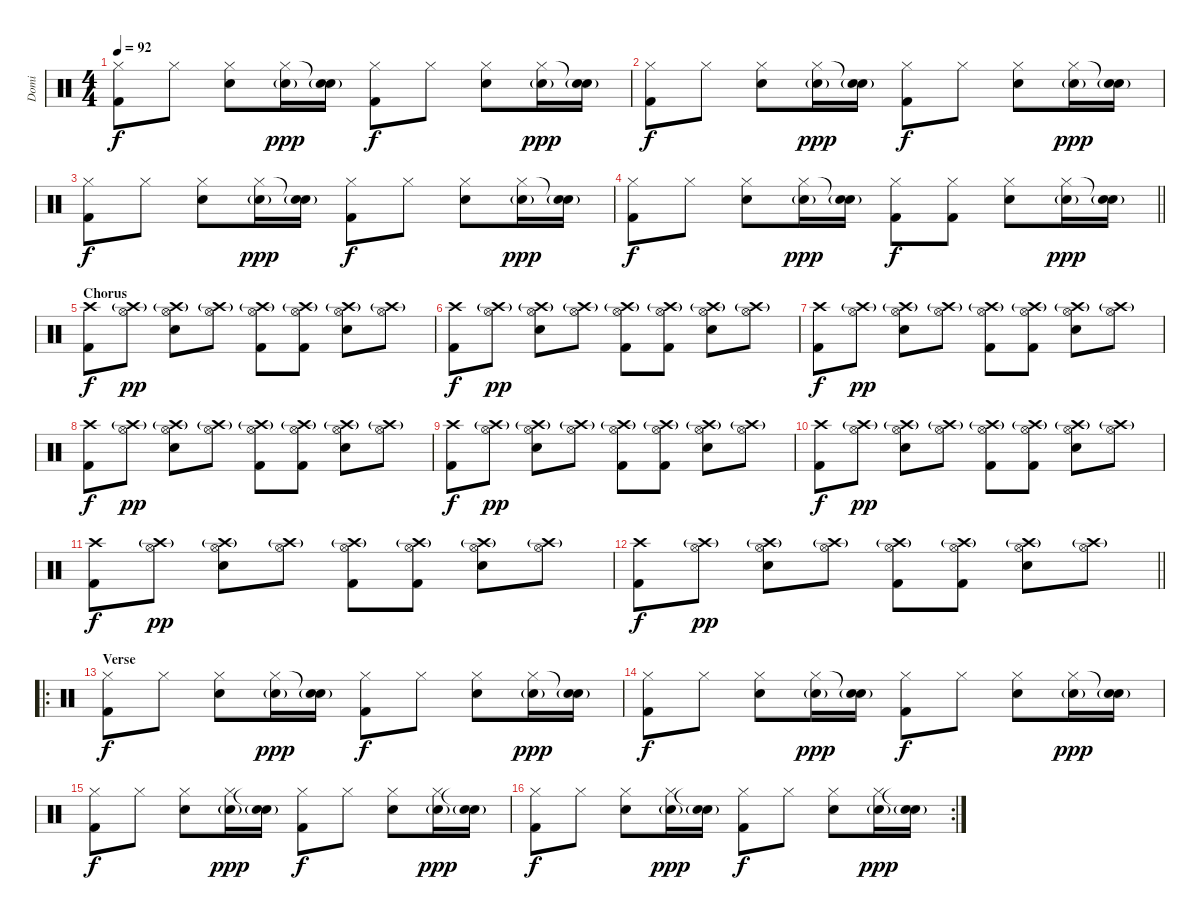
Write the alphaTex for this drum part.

\track ("Domi" "Domi") {instrument percussion}
\staff {score}
\articulation defaults
\ts (4 4)
\tempo 92
\clef neutral
\ks c
("Hi-Hat (closed)" "Kick (hit) 2").8{dy f} "Hi-Hat (closed)".8 ("Hi-Hat (closed)" "Electric Snare (hit)").8 ("Hi-Hat (closed)" "Electric Snare (hit)"{g}).16{dy ppp} ("Snare (hit)"{t} "Electric Snare (hit)"{g}).16 ("Hi-Hat (closed)" "Kick (hit) 2").8{dy f} "Hi-Hat (closed)".8 ("Hi-Hat (closed)" "Electric Snare (hit)").8 ("Hi-Hat (closed)" "Electric Snare (hit)"{g}).16{dy ppp} ("Snare (hit)"{t} "Electric Snare (hit)"{g}).16 |
("Hi-Hat (closed)" "Kick (hit) 2").8{dy f} "Hi-Hat (closed)".8 ("Hi-Hat (closed)" "Electric Snare (hit)").8 ("Hi-Hat (closed)" "Electric Snare (hit)"{g}).16{dy ppp} ("Snare (hit)"{t} "Electric Snare (hit)"{g}).16 ("Hi-Hat (closed)" "Kick (hit) 2").8{dy f} "Hi-Hat (closed)".8 ("Hi-Hat (closed)" "Electric Snare (hit)").8 ("Hi-Hat (closed)" "Electric Snare (hit)"{g}).16{dy ppp} ("Snare (hit)"{t} "Electric Snare (hit)"{g}).16 |
("Hi-Hat (closed)" "Kick (hit) 2").8{dy f} "Hi-Hat (closed)".8 ("Hi-Hat (closed)" "Electric Snare (hit)").8 ("Hi-Hat (closed)" "Electric Snare (hit)"{g}).16{dy ppp} ("Snare (hit)"{t} "Electric Snare (hit)"{g}).16 ("Hi-Hat (closed)" "Kick (hit) 2").8{dy f} "Hi-Hat (closed)".8 ("Hi-Hat (closed)" "Electric Snare (hit)").8 ("Hi-Hat (closed)" "Electric Snare (hit)"{g}).16{dy ppp} ("Snare (hit)"{t} "Electric Snare (hit)"{g}).16 |
\barLineRight lightlight
("Hi-Hat (closed)" "Kick (hit) 2").8{dy f} "Hi-Hat (closed)".8 ("Hi-Hat (closed)" "Electric Snare (hit)").8 ("Hi-Hat (closed)" "Electric Snare (hit)"{g}).16{dy ppp} ("Snare (hit)"{t} "Electric Snare (hit)"{g}).16 ("Hi-Hat (closed)" "Kick (hit) 2").8{dy f} ("Hi-Hat (closed)" "Kick (hit) 2").8 ("Hi-Hat (closed)" "Electric Snare (hit)").8 ("Hi-Hat (closed)" "Electric Snare (hit)"{g}).16{dy ppp} ("Snare (hit)"{t} "Electric Snare (hit)"{g}).16 |
\section ("" "Chorus")
("Crash high (hit)" "Kick (hit) 2").8{dy f} ("Hi-Hat (open)" "Crash high (hit)"{g}).8{dy pp} ("Hi-Hat (open)" "Crash high (hit)"{g} "Electric Snare (hit)").8 ("Hi-Hat (open)" "Crash high (hit)"{g}).8 ("Hi-Hat (open)" "Crash high (hit)"{g} "Kick (hit) 2").8 ("Hi-Hat (open)" "Crash high (hit)"{g} "Kick (hit) 2").8 ("Hi-Hat (open)" "Crash high (hit)"{g} "Electric Snare (hit)").8 ("Hi-Hat (open)" "Crash high (hit)"{g}).8 |
("Crash high (hit)" "Kick (hit) 2").8{dy f} ("Hi-Hat (open)" "Crash high (hit)"{g}).8{dy pp} ("Hi-Hat (open)" "Crash high (hit)"{g} "Electric Snare (hit)").8 ("Hi-Hat (open)" "Crash high (hit)"{g}).8 ("Hi-Hat (open)" "Crash high (hit)"{g} "Kick (hit) 2").8 ("Hi-Hat (open)" "Crash high (hit)"{g} "Kick (hit) 2").8 ("Hi-Hat (open)" "Crash high (hit)"{g} "Electric Snare (hit)").8 ("Hi-Hat (open)" "Crash high (hit)"{g}).8 |
("Crash high (hit)" "Kick (hit) 2").8{dy f} ("Hi-Hat (open)" "Crash high (hit)"{g}).8{dy pp} ("Hi-Hat (open)" "Crash high (hit)"{g} "Electric Snare (hit)").8 ("Hi-Hat (open)" "Crash high (hit)"{g}).8 ("Hi-Hat (open)" "Crash high (hit)"{g} "Kick (hit) 2").8 ("Hi-Hat (open)" "Crash high (hit)"{g} "Kick (hit) 2").8 ("Hi-Hat (open)" "Crash high (hit)"{g} "Electric Snare (hit)").8 ("Hi-Hat (open)" "Crash high (hit)"{g}).8 |
("Crash high (hit)" "Kick (hit) 2").8{dy f} ("Hi-Hat (open)" "Crash high (hit)"{g}).8{dy pp} ("Hi-Hat (open)" "Crash high (hit)"{g} "Electric Snare (hit)").8 ("Hi-Hat (open)" "Crash high (hit)"{g}).8 ("Hi-Hat (open)" "Crash high (hit)"{g} "Kick (hit) 2").8 ("Hi-Hat (open)" "Crash high (hit)"{g} "Kick (hit) 2").8 ("Hi-Hat (open)" "Crash high (hit)"{g} "Electric Snare (hit)").8 ("Hi-Hat (open)" "Crash high (hit)"{g}).8 |
("Crash high (hit)" "Kick (hit) 2").8{dy f} ("Hi-Hat (open)" "Crash high (hit)"{g}).8{dy pp} ("Hi-Hat (open)" "Crash high (hit)"{g} "Electric Snare (hit)").8 ("Hi-Hat (open)" "Crash high (hit)"{g}).8 ("Hi-Hat (open)" "Crash high (hit)"{g} "Kick (hit) 2").8 ("Hi-Hat (open)" "Crash high (hit)"{g} "Kick (hit) 2").8 ("Hi-Hat (open)" "Crash high (hit)"{g} "Electric Snare (hit)").8 ("Hi-Hat (open)" "Crash high (hit)"{g}).8 |
("Crash high (hit)" "Kick (hit) 2").8{dy f} ("Hi-Hat (open)" "Crash high (hit)"{g}).8{dy pp} ("Hi-Hat (open)" "Crash high (hit)"{g} "Electric Snare (hit)").8 ("Hi-Hat (open)" "Crash high (hit)"{g}).8 ("Hi-Hat (open)" "Crash high (hit)"{g} "Kick (hit) 2").8 ("Hi-Hat (open)" "Crash high (hit)"{g} "Kick (hit) 2").8 ("Hi-Hat (open)" "Crash high (hit)"{g} "Electric Snare (hit)").8 ("Hi-Hat (open)" "Crash high (hit)"{g}).8 |
("Crash high (hit)" "Kick (hit) 2").8{dy f} ("Hi-Hat (open)" "Crash high (hit)"{g}).8{dy pp} ("Hi-Hat (open)" "Crash high (hit)"{g} "Electric Snare (hit)").8 ("Hi-Hat (open)" "Crash high (hit)"{g}).8 ("Hi-Hat (open)" "Crash high (hit)"{g} "Kick (hit) 2").8 ("Hi-Hat (open)" "Crash high (hit)"{g} "Kick (hit) 2").8 ("Hi-Hat (open)" "Crash high (hit)"{g} "Electric Snare (hit)").8 ("Hi-Hat (open)" "Crash high (hit)"{g}).8 |
\barLineRight lightlight
("Crash high (hit)" "Kick (hit) 2").8{dy f} ("Hi-Hat (open)" "Crash high (hit)"{g}).8{dy pp} ("Hi-Hat (open)" "Crash high (hit)"{g} "Electric Snare (hit)").8 ("Hi-Hat (open)" "Crash high (hit)"{g}).8 ("Hi-Hat (open)" "Crash high (hit)"{g} "Kick (hit) 2").8 ("Hi-Hat (open)" "Crash high (hit)"{g} "Kick (hit) 2").8 ("Hi-Hat (open)" "Crash high (hit)"{g} "Electric Snare (hit)").8 ("Hi-Hat (open)" "Crash high (hit)"{g}).8 |
\ro
\section ("" "Verse")
("Hi-Hat (closed)" "Kick (hit) 2").8{dy f} "Hi-Hat (closed)".8 ("Hi-Hat (closed)" "Electric Snare (hit)").8 ("Hi-Hat (closed)" "Electric Snare (hit)"{g}).16{dy ppp} ("Snare (hit)"{t} "Electric Snare (hit)"{g}).16 ("Hi-Hat (closed)" "Kick (hit) 2").8{dy f} "Hi-Hat (closed)".8 ("Hi-Hat (closed)" "Electric Snare (hit)").8 ("Hi-Hat (closed)" "Electric Snare (hit)"{g}).16{dy ppp} ("Snare (hit)"{t} "Electric Snare (hit)"{g}).16 |
("Hi-Hat (closed)" "Kick (hit) 2").8{dy f} "Hi-Hat (closed)".8 ("Hi-Hat (closed)" "Electric Snare (hit)").8 ("Hi-Hat (closed)" "Electric Snare (hit)"{g}).16{dy ppp} ("Snare (hit)"{t} "Electric Snare (hit)"{g}).16 ("Hi-Hat (closed)" "Kick (hit) 2").8{dy f} "Hi-Hat (closed)".8 ("Hi-Hat (closed)" "Electric Snare (hit)").8 ("Hi-Hat (closed)" "Electric Snare (hit)"{g}).16{dy ppp} ("Snare (hit)"{t} "Electric Snare (hit)"{g}).16 |
("Hi-Hat (closed)" "Kick (hit) 2").8{dy f} "Hi-Hat (closed)".8 ("Hi-Hat (closed)" "Electric Snare (hit)").8 ("Hi-Hat (closed)" "Electric Snare (hit)"{g}).16{dy ppp} ("Snare (hit)"{t} "Electric Snare (hit)"{g}).16 ("Hi-Hat (closed)" "Kick (hit) 2").8{dy f} "Hi-Hat (closed)".8 ("Hi-Hat (closed)" "Electric Snare (hit)").8 ("Hi-Hat (closed)" "Electric Snare (hit)"{g}).16{dy ppp} ("Snare (hit)"{t} "Electric Snare (hit)"{g}).16 |
\rc 2
("Hi-Hat (closed)" "Kick (hit) 2").8{dy f} "Hi-Hat (closed)".8 ("Hi-Hat (closed)" "Electric Snare (hit)").8 ("Hi-Hat (closed)" "Electric Snare (hit)"{g}).16{dy ppp} ("Snare (hit)"{t} "Electric Snare (hit)"{g}).16 ("Hi-Hat (closed)" "Kick (hit) 2").8{dy f} "Hi-Hat (closed)".8 ("Hi-Hat (closed)" "Electric Snare (hit)").8 ("Hi-Hat (closed)" "Electric Snare (hit)"{g}).16{dy ppp} ("Snare (hit)"{t} "Electric Snare (hit)"{g}).16
